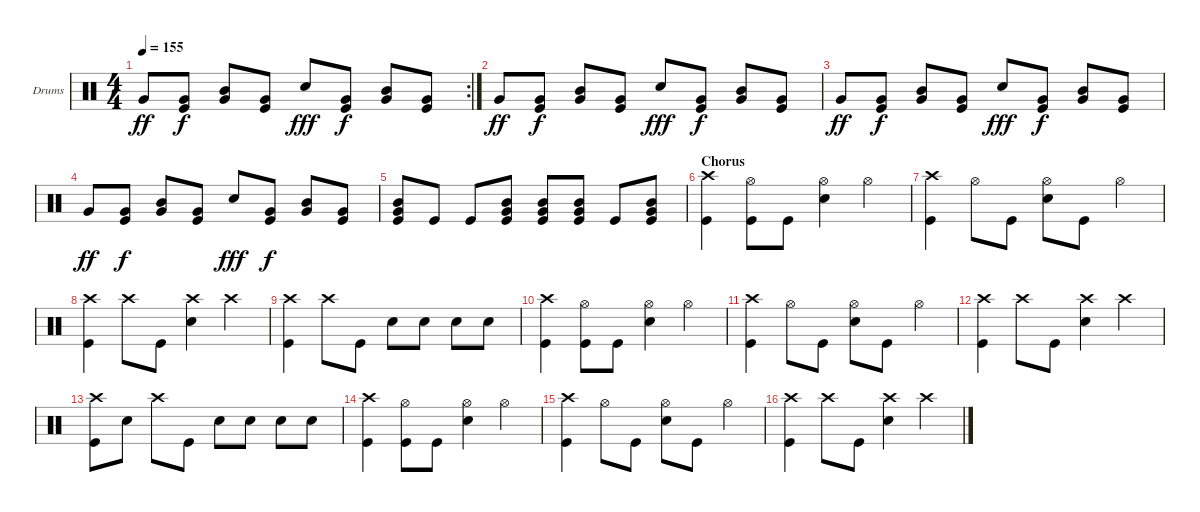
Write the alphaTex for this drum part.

\defaultSystemsLayout 4
\bracketExtendMode groupsimilarinstruments
\firstSystemTrackNameOrientation horizontal
\otherSystemsTrackNameOrientation horizontal
\track ("Ben Tatcher" "Drums") {instrument percussion}
\staff {score}
\articulation defaults
\rc 2
\ts (4 4)
\tempo 155
\clef neutral
\scale
0.355932
\ks c "Very Low Tom (hit)".8{dy ff}
("Kick (hit)" "Very Low Tom (hit)").8{dy f} ("Very Low Tom (hit)" "Mid Tom (hit)").8 ("Kick (hit)" "Very Low Tom (hit)").8 "Snare (hit) 2".8{dy fff} ("Very Low Tom (hit)" "Kick (hit)").8{dy f} ("Very Low Tom (hit)" "Mid Tom (hit)").8 ("Kick (hit)" "Very Low Tom (hit)").8 |
\scale
0.322034 "Very Low Tom (hit)".8{dy ff} ("Kick (hit)" "Very Low Tom (hit)").8{dy f} ("Very Low Tom (hit)" "Mid Tom (hit)").8 ("Kick (hit)" "Very Low Tom (hit)").8 "Snare (hit) 2".8{dy fff} ("Very Low Tom (hit)" "Kick (hit)").8{dy f} ("Very Low Tom (hit)" "Mid Tom (hit)").8 ("Kick (hit)" "Very Low Tom (hit)").8 |
"Very Low Tom (hit)".8{dy ff} ("Kick (hit)" "Very Low Tom (hit)").8{dy f} ("Very Low Tom (hit)" "Mid Tom (hit)").8 ("Kick (hit)" "Very Low Tom (hit)").8 "Snare (hit) 2".8{dy fff} ("Very Low Tom (hit)" "Kick (hit)").8{dy f} ("Very Low Tom (hit)" "Mid Tom (hit)").8 ("Kick (hit)" "Very Low Tom (hit)").8 |
"Very Low Tom (hit)".8{dy ff} ("Kick (hit)" "Very Low Tom (hit)").8{dy f} ("Very Low Tom (hit)" "Mid Tom (hit)").8 ("Kick (hit)" "Very Low Tom (hit)").8 "Snare (hit) 2".8{dy fff} ("Very Low Tom (hit)" "Kick (hit)").8{dy f} ("Very Low Tom (hit)" "Mid Tom (hit)").8 ("Kick (hit)" "Very Low Tom (hit)").8 |
("Very Low Tom (hit)" "Mid Tom (hit)" "Kick (hit)").8 "Kick (hit)".8 "Kick (hit)".8 ("Mid Tom (hit)" "Very Low Tom (hit)" "Kick (hit)").8 ("Very Low Tom (hit)" "Mid Tom (hit)" "Kick (hit)").8 ("Kick (hit)" "Very Low Tom (hit)" "Mid Tom (hit)").8 "Kick (hit)".8 ("Kick (hit)" "Very Low Tom (hit)" "Mid Tom (hit)").8 |
\section ("" "Chorus")
("Kick (hit)" "Crash high (hit)").4 ("Kick (hit)" "Hi-Hat (open)").8 "Kick (hit)".8 ("Hi-Hat (open)" "Snare (hit) 2").4 "Hi-Hat (open)".4 |
("Crash high (hit)" "Kick (hit)").4 "Hi-Hat (open)".8 "Kick (hit)".8 ("Snare (hit) 2" "Hi-Hat (open)").8 "Kick (hit)".8 "Hi-Hat (open)".4 |
("Kick (hit)" "Crash high (hit)").4 "Crash high (hit)".8 "Kick (hit)".8 ("Snare (hit) 2" "Crash high (hit)").4 "Crash high (hit)".4 |
("Kick (hit)" "Crash high (hit)").4 "Crash high (hit)".8 "Kick (hit)".8 "Snare (hit) 2".8 "Snare (hit) 2".8 "Snare (hit) 2".8 "Snare (hit) 2".8 |
("Kick (hit)" "Crash high (hit)").4 ("Kick (hit)" "Hi-Hat (open)").8 "Kick (hit)".8 ("Hi-Hat (open)" "Snare (hit) 2").4 "Hi-Hat (open)".4 |
("Crash high (hit)" "Kick (hit)").4 "Hi-Hat (open)".8 "Kick (hit)".8 ("Snare (hit) 2" "Hi-Hat (open)").8 "Kick (hit)".8 "Hi-Hat (open)".4 |
("Kick (hit)" "Crash high (hit)").4 "Crash high (hit)".8 "Kick (hit)".8 ("Snare (hit) 2" "Crash high (hit)").4 "Crash high (hit)".4 |
("Kick (hit)" "Crash high (hit)").8 "Snare (hit) 2".8 "Crash high (hit)".8 "Kick (hit)".8 "Snare (hit) 2".8 "Snare (hit) 2".8 "Snare (hit) 2".8 "Snare (hit) 2".8 |
("Kick (hit)" "Crash high (hit)").4 ("Kick (hit)" "Hi-Hat (open)").8 "Kick (hit)".8 ("Hi-Hat (open)" "Snare (hit) 2").4 "Hi-Hat (open)".4 |
("Crash high (hit)" "Kick (hit)").4 "Hi-Hat (open)".8 "Kick (hit)".8 ("Snare (hit) 2" "Hi-Hat (open)").8 "Kick (hit)".8 "Hi-Hat (open)".4 |
("Kick (hit)" "Crash high (hit)").4 "Crash high (hit)".8 "Kick (hit)".8 ("Snare (hit) 2" "Crash high (hit)").4 "Crash high (hit)".4
